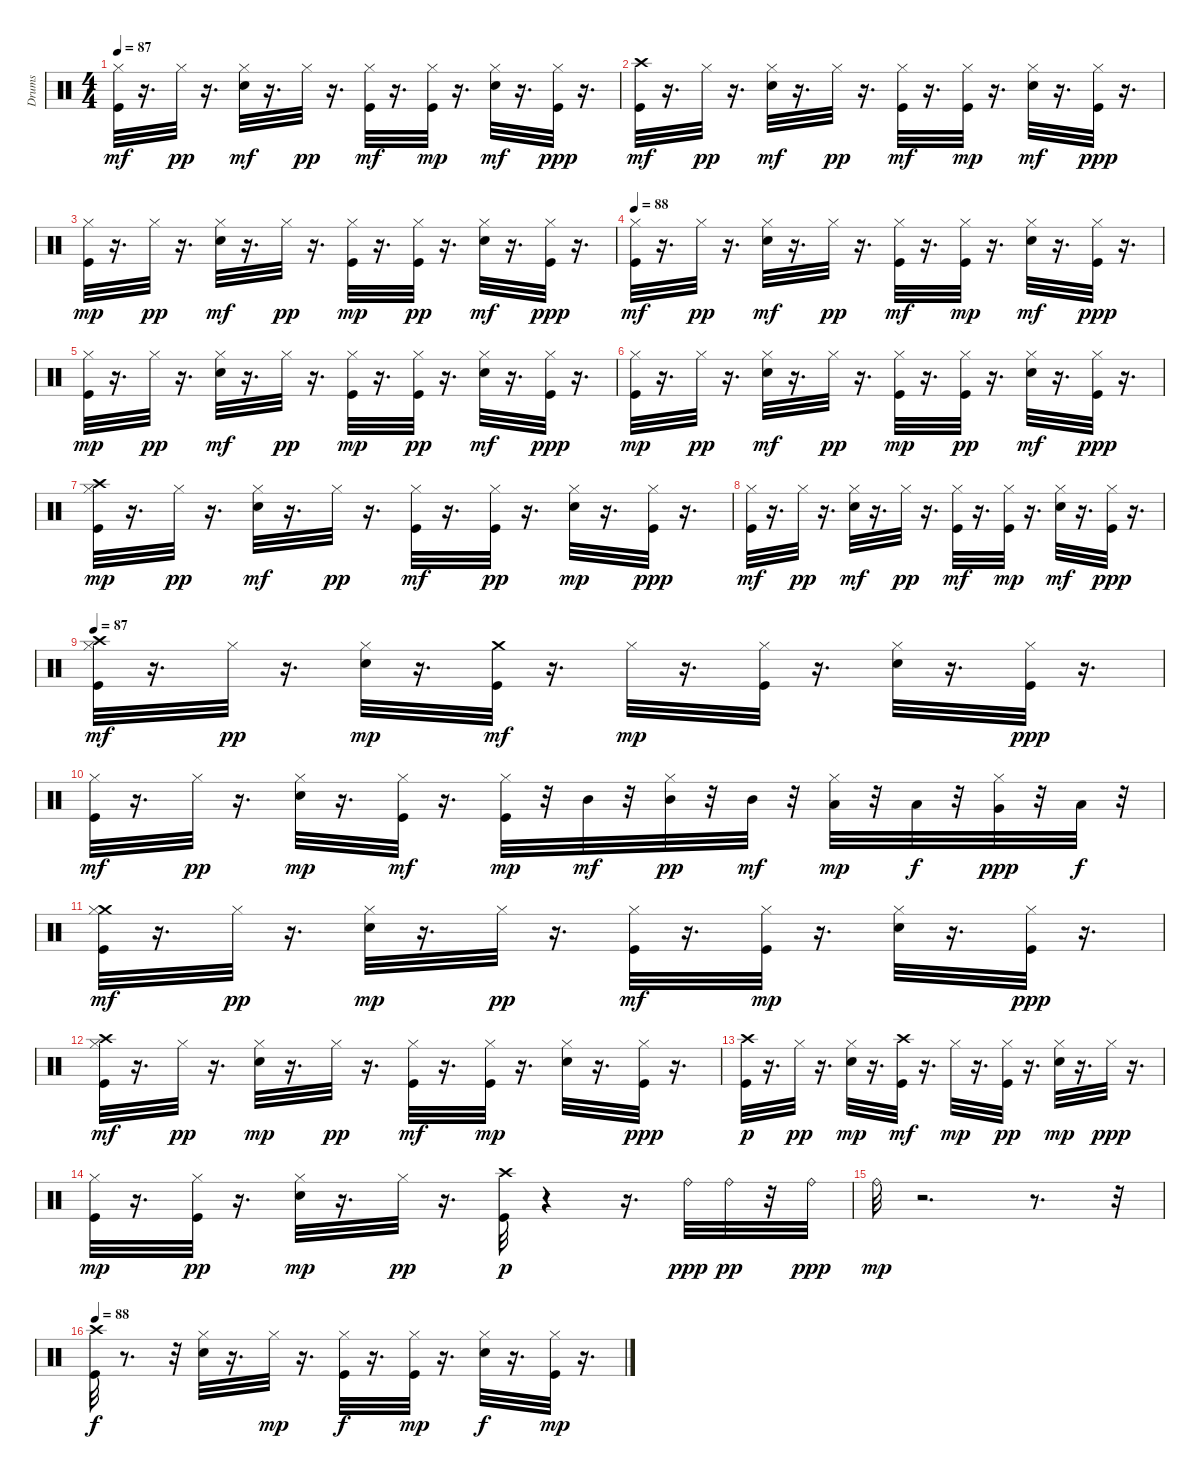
\track ("Drums" "Drums") {instrument percussion}
\staff {score}
\articulation defaults
\ts (4 4)
\tempo 87
\clef neutral
\ks c
("Hi-Hat (closed)" "Kick (hit)").32{dy mf} r.16{d} "Hi-Hat (closed)".32{dy pp} r.16{d} ("Hi-Hat (closed)" "Electric Snare (hit)").32{dy mf} r.16{d} "Hi-Hat (closed)".32{dy pp} r.16{d} ("Hi-Hat (closed)" "Kick (hit)").32{dy mf} r.16{d} ("Hi-Hat (closed)" "Kick (hit)").32{dy mp} r.16{d} ("Hi-Hat (closed)" "Electric Snare (hit)").32{dy mf} r.16{d} ("Hi-Hat (closed)" "Kick (hit)").32{dy ppp} r.16{d} |
("Crash high (hit)" "Kick (hit)").32{dy mf} r.16{d} "Hi-Hat (closed)".32{dy pp} r.16{d} ("Hi-Hat (closed)" "Electric Snare (hit)").32{dy mf} r.16{d} "Hi-Hat (closed)".32{dy pp} r.16{d} ("Hi-Hat (closed)" "Kick (hit)").32{dy mf} r.16{d} ("Hi-Hat (closed)" "Kick (hit)").32{dy mp} r.16{d} ("Hi-Hat (closed)" "Electric Snare (hit)").32{dy mf} r.16{d} ("Hi-Hat (closed)" "Kick (hit)").32{dy ppp} r.16{d} |
("Kick (hit)" "Hi-Hat (closed)").32{dy mp} r.16{d} "Hi-Hat (closed)".32{dy pp} r.16{d} ("Hi-Hat (closed)" "Electric Snare (hit)").32{dy mf} r.16{d} "Hi-Hat (closed)".32{dy pp} r.16{d} ("Kick (hit)" "Hi-Hat (closed)").32{dy mp} r.16{d} ("Kick (hit)" "Hi-Hat (closed)").32{dy pp} r.16{d} ("Hi-Hat (closed)" "Electric Snare (hit)").32{dy mf} r.16{d} ("Kick (hit)" "Hi-Hat (closed)").32{dy ppp} r.16{d} |
\tempo 88
("Hi-Hat (closed)" "Kick (hit)").32{dy mf} r.16{d} "Hi-Hat (closed)".32{dy pp} r.16{d} ("Hi-Hat (closed)" "Electric Snare (hit)").32{dy mf} r.16{d} "Hi-Hat (closed)".32{dy pp} r.16{d} ("Hi-Hat (closed)" "Kick (hit)").32{dy mf} r.16{d} ("Hi-Hat (closed)" "Kick (hit)").32{dy mp} r.16{d} ("Hi-Hat (closed)" "Electric Snare (hit)").32{dy mf} r.16{d} ("Hi-Hat (closed)" "Kick (hit)").32{dy ppp} r.16{d} |
("Kick (hit)" "Hi-Hat (closed)").32{dy mp} r.16{d} "Hi-Hat (closed)".32{dy pp} r.16{d} ("Hi-Hat (closed)" "Electric Snare (hit)").32{dy mf} r.16{d} "Hi-Hat (closed)".32{dy pp} r.16{d} ("Kick (hit)" "Hi-Hat (closed)").32{dy mp} r.16{d} ("Kick (hit)" "Hi-Hat (closed)").32{dy pp} r.16{d} ("Hi-Hat (closed)" "Electric Snare (hit)").32{dy mf} r.16{d} ("Kick (hit)" "Hi-Hat (closed)").32{dy ppp} r.16{d} |
("Kick (hit)" "Hi-Hat (closed)").32{dy mp} r.16{d} "Hi-Hat (closed)".32{dy pp} r.16{d} ("Hi-Hat (closed)" "Electric Snare (hit)").32{dy mf} r.16{d} "Hi-Hat (closed)".32{dy pp} r.16{d} ("Kick (hit)" "Hi-Hat (closed)").32{dy mp} r.16{d} ("Kick (hit)" "Hi-Hat (closed)").32{dy pp} r.16{d} ("Hi-Hat (closed)" "Electric Snare (hit)").32{dy mf} r.16{d} ("Kick (hit)" "Hi-Hat (closed)").32{dy ppp} r.16{d} |
("Crash high (hit)" "Kick (hit)" "Hi-Hat (closed)").32{dy mp volume 12} r.16{d} "Hi-Hat (closed)".32{dy pp} r.16{d} ("Hi-Hat (closed)" "Electric Snare (hit)").32{dy mf} r.16{d} "Hi-Hat (closed)".32{dy pp} r.16{d} ("Hi-Hat (closed)" "Kick (hit)").32{dy mf} r.16{d} ("Kick (hit)" "Hi-Hat (closed)").32{dy pp} r.16{d} ("Electric Snare (hit)" "Hi-Hat (closed)").32{dy mp} r.16{d} ("Hi-Hat (closed)" "Kick (hit)").32{dy ppp} r.16{d} |
("Hi-Hat (closed)" "Kick (hit)").32{dy mf} r.16{d} "Hi-Hat (closed)".32{dy pp} r.16{d} ("Hi-Hat (closed)" "Electric Snare (hit)").32{dy mf} r.16{d} "Hi-Hat (closed)".32{dy pp} r.16{d} ("Hi-Hat (closed)" "Kick (hit)").32{dy mf} r.16{d} ("Hi-Hat (closed)" "Kick (hit)").32{dy mp} r.16{d} ("Hi-Hat (closed)" "Electric Snare (hit)").32{dy mf} r.16{d} ("Hi-Hat (closed)" "Kick (hit)").32{dy ppp} r.16{d} |
\tempo 87
("Crash high (hit)" "Hi-Hat (closed)" "Kick (hit)").32{dy mf} r.16{d} "Hi-Hat (closed)".32{dy pp} r.16{d} ("Electric Snare (hit)" "Hi-Hat (closed)").32{dy mp} r.16{d} ("Crash medium (hit)" "Kick (hit)").32{dy mf} r.16{d} "Hi-Hat (closed)".32{dy mp} r.16{d} ("Hi-Hat (closed)" "Kick (hit)").32 r.16{d} ("Electric Snare (hit)" "Hi-Hat (closed)").32 r.16{d} ("Hi-Hat (closed)" "Kick (hit)").32{dy ppp} r.16{d} |
("Hi-Hat (closed)" "Kick (hit)").32{dy mf} r.16{d} "Hi-Hat (closed)".32{dy pp} r.16{d} ("Electric Snare (hit)" "Hi-Hat (closed)").32{dy mp} r.16{d} ("Hi-Hat (closed)" "Kick (hit)").32{dy mf} r.16{d} ("Kick (hit)" "Hi-Hat (closed)").32{dy mp} r.32 "Mid Tom (hit)".32{dy mf} r.32 ("Mid Tom (hit)" "Hi-Hat (closed)").32{dy pp} r.32 "Mid Tom (hit)".32{dy mf} r.32 ("Hi-Hat (closed)" "Low Tom (hit)").32{dy mp} r.32 "Low Tom (hit)".32{dy f} r.32 ("Very Low Tom (hit)" "Hi-Hat (closed)").32{dy ppp} r.32 "Low Floor Tom (hit)".32{dy f} r.32 |
("Crash medium (hit)" "Hi-Hat (closed)" "Kick (hit)").32{dy mf} r.16{d} "Hi-Hat (closed)".32{dy pp} r.16{d} ("Electric Snare (hit)" "Hi-Hat (closed)").32{dy mp} r.16{d} "Hi-Hat (closed)".32{dy pp} r.16{d} ("Hi-Hat (closed)" "Kick (hit)").32{dy mf} r.16{d} ("Hi-Hat (closed)" "Kick (hit)").32{dy mp} r.16{d} ("Electric Snare (hit)" "Hi-Hat (closed)").32 r.16{d} ("Hi-Hat (closed)" "Kick (hit)").32{dy ppp} r.16{d} |
("Crash high (hit)" "Hi-Hat (closed)" "Kick (hit)").32{dy mf} r.16{d} "Hi-Hat (closed)".32{dy pp} r.16{d} ("Electric Snare (hit)" "Hi-Hat (closed)").32{dy mp} r.16{d} "Hi-Hat (closed)".32{dy pp} r.16{d} ("Hi-Hat (closed)" "Kick (hit)").32{dy mf} r.16{d} ("Hi-Hat (closed)" "Kick (hit)").32{dy mp} r.16{d} ("Electric Snare (hit)" "Hi-Hat (closed)").32 r.16{d} ("Hi-Hat (closed)" "Kick (hit)").32{dy ppp} r.16{d} |
("Kick (hit)" "Crash high (hit)").32{dy p} r.16{d} "Hi-Hat (closed)".32{dy pp} r.16{d} ("Electric Snare (hit)" "Hi-Hat (closed)").32{dy mp} r.16{d} ("Crash high (hit)" "Kick (hit)").32{dy mf} r.16{d} "Hi-Hat (closed)".32{dy mp} r.16{d} ("Kick (hit)" "Hi-Hat (closed)").32{dy pp} r.16{d} ("Electric Snare (hit)" "Hi-Hat (closed)").32{dy mp} r.16{d} "Hi-Hat (closed)".32{dy ppp} r.16{d} |
("Kick (hit)" "Hi-Hat (closed)").32{dy mp} r.16{d} ("Kick (hit)" "Hi-Hat (closed)").32{dy pp} r.16{d} ("Electric Snare (hit)" "Hi-Hat (closed)").32{dy mp} r.16{d} "Hi-Hat (closed)".32{dy pp} r.16{d} ("Kick (hit)" "Crash high (hit)").32{dy p} r.4 r.16{d} "Ride (bell)".32{dy ppp} "Ride (bell)".32{dy pp} r.32 "Ride (bell)".32{dy ppp} |
"Ride (bell)".32{dy mp} r.2{d} r.8{d} r.32 |
\tempo 88
("Kick (hit)" "Crash high (hit)").32{dy f} r.8{d} r.32 ("Hi-Hat (closed)" "Electric Snare (hit)").32 r.16{d} "Hi-Hat (closed)".32{dy mp} r.16{d} ("Kick (hit)" "Hi-Hat (closed)").32{dy f} r.16{d} ("Hi-Hat (closed)" "Kick (hit)").32{dy mp} r.16{d} ("Hi-Hat (closed)" "Electric Snare (hit)").32{dy f} r.16{d} ("Hi-Hat (closed)" "Kick (hit)").32{dy mp} r.16{d}
